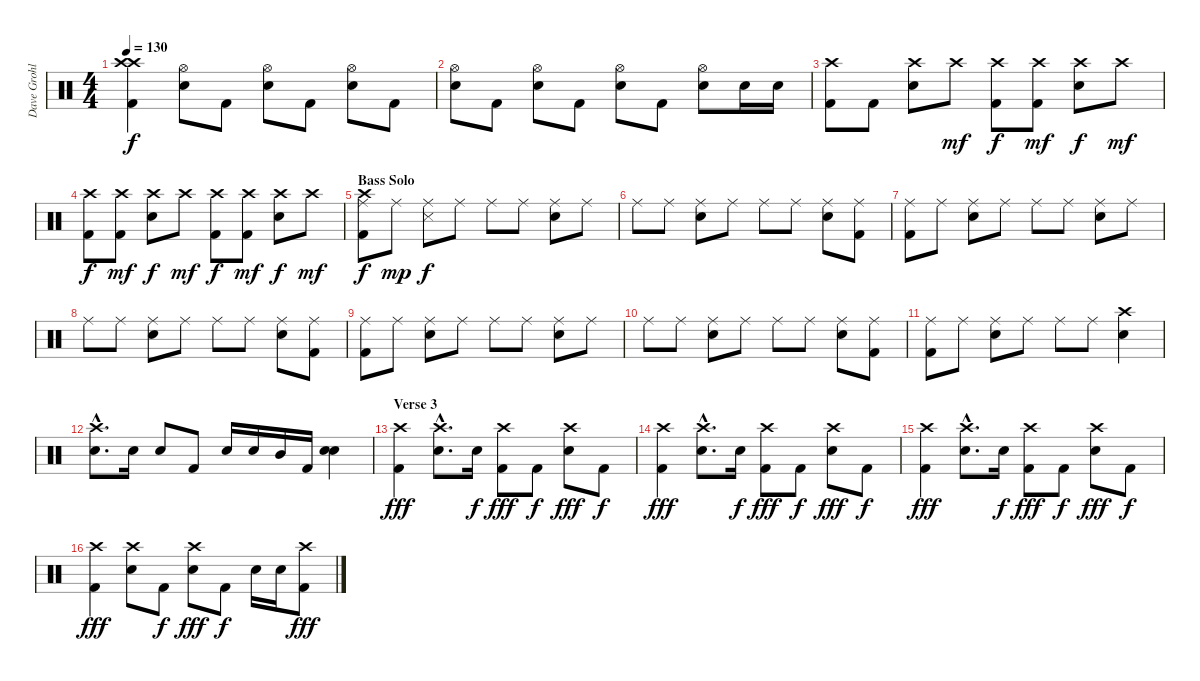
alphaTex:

\track ("Dave Grohl" "Dave Grohl") {instrument percussion}
\staff {score}
\articulation defaults
\ts (4 4)
\tempo 130
\clef neutral
\ks c
("Crash high (hit)" "Crash high (hit)" "Kick (hit) 2").4{dy f} ("Hi-Hat (open)" "Electric Snare (hit)").8 "Kick (hit) 2".8 ("Hi-Hat (open)" "Electric Snare (hit)").8 "Kick (hit) 2".8 ("Hi-Hat (open)" "Electric Snare (hit)").8 "Kick (hit) 2".8 |
("Hi-Hat (open)" "Electric Snare (hit)").8 "Kick (hit) 2".8 ("Hi-Hat (open)" "Electric Snare (hit)").8 "Kick (hit) 2".8 ("Hi-Hat (open)" "Electric Snare (hit)").8 "Kick (hit) 2".8 ("Hi-Hat (open)" "Electric Snare (hit)").8 "Electric Snare (hit)".16 "Electric Snare (hit)".16 |
("Crash high (hit)" "Kick (hit) 2").8 "Kick (hit) 2".8 ("Crash high (hit)" "Electric Snare (hit)").8 "Crash high (hit)".8{dy mf} ("Crash high (hit)" "Kick (hit) 2").8{dy f} ("Crash high (hit)" "Kick (hit) 2").8{dy mf} ("Crash high (hit)" "Electric Snare (hit)").8{dy f} "Crash high (hit)".8{dy mf} |
("Crash high (hit)" "Kick (hit) 2").8{dy f} ("Crash high (hit)" "Kick (hit) 2").8{dy mf} ("Crash high (hit)" "Electric Snare (hit)").8{dy f} "Crash high (hit)".8{dy mf} ("Crash high (hit)" "Kick (hit) 2").8{dy f} ("Crash high (hit)" "Kick (hit) 2").8{dy mf} ("Crash high (hit)" "Electric Snare (hit)").8{dy f} "Crash high (hit)".8{dy mf} |
\section ("" "Bass Solo")
("Crash high (hit)" "Ride (middle)" "Kick (hit) 2").8{dy f} "Ride (middle)".8{dy mp} ("Ride (middle)" "Snare (side stick) 3").8{dy f} "Ride (middle)".8 "Ride (middle)".8 "Ride (middle)".8 ("Ride (middle)" "Snare (hit) 2").8 "Ride (middle)".8 |
"Ride (middle)".8 "Ride (middle)".8 ("Ride (middle)" "Snare (hit) 2").8 "Ride (middle)".8 "Ride (middle)".8 "Ride (middle)".8 ("Ride (middle)" "Snare (hit) 2").8 ("Ride (middle)" "Kick (hit) 2").8 |
("Ride (middle)" "Kick (hit) 2").8 "Ride (middle)".8 ("Ride (middle)" "Snare (hit) 2").8 "Ride (middle)".8 "Ride (middle)".8 "Ride (middle)".8 ("Ride (middle)" "Snare (hit) 2").8 "Ride (middle)".8 |
"Ride (middle)".8 "Ride (middle)".8 ("Ride (middle)" "Snare (hit) 2").8 "Ride (middle)".8 "Ride (middle)".8 "Ride (middle)".8 ("Ride (middle)" "Snare (hit) 2").8 ("Ride (middle)" "Kick (hit) 2").8 |
("Ride (middle)" "Kick (hit) 2").8 "Ride (middle)".8 ("Ride (middle)" "Snare (hit) 2").8 "Ride (middle)".8 "Ride (middle)".8 "Ride (middle)".8 ("Ride (middle)" "Snare (hit) 2").8 "Ride (middle)".8 |
"Ride (middle)".8 "Ride (middle)".8 ("Ride (middle)" "Snare (hit) 2").8 "Ride (middle)".8 "Ride (middle)".8 "Ride (middle)".8 ("Ride (middle)" "Snare (hit) 2").8 ("Ride (middle)" "Kick (hit) 2").8 |
("Ride (middle)" "Kick (hit) 2").8 "Ride (middle)".8 ("Ride (middle)" "Snare (hit) 2").8 "Ride (middle)".8 "Ride (middle)".8 "Ride (middle)".8 ("Crash high (hit)" "Snare (hit) 2").4 |
("Crash high (hit)"{hac} "Electric Snare (hit)"{hac}).8{d} "Electric Snare (hit)".16 "Electric Snare (hit)".8 "Kick (hit) 2".8 "Electric Snare (hit)".16 "Electric Snare (hit)".16 "Mid Tom (hit)".16 "Kick (hit) 2".16 ("Electric Snare (hit)" "Electric Snare (hit)").4 |
\section ("" "Verse 3")
("Crash high (hit)" "Kick (hit) 2").4{dy fff} ("Crash high (hit)"{hac} "Electric Snare (hit)"{hac}).8{d} "Electric Snare (hit)".16{dy f} ("Crash high (hit)" "Kick (hit) 2").8{dy fff} "Kick (hit) 2".8{dy f} ("Crash high (hit)" "Electric Snare (hit)").8{dy fff} "Kick (hit) 2".8{dy f} |
("Crash high (hit)" "Kick (hit) 2").4{dy fff} ("Crash high (hit)"{hac} "Electric Snare (hit)"{hac}).8{d} "Electric Snare (hit)".16{dy f} ("Crash high (hit)" "Kick (hit) 2").8{dy fff} "Kick (hit) 2".8{dy f} ("Crash high (hit)" "Electric Snare (hit)").8{dy fff} "Kick (hit) 2".8{dy f} |
("Crash high (hit)" "Kick (hit) 2").4{dy fff} ("Crash high (hit)"{hac} "Electric Snare (hit)"{hac}).8{d} "Electric Snare (hit)".16{dy f} ("Crash high (hit)" "Kick (hit) 2").8{dy fff} "Kick (hit) 2".8{dy f} ("Crash high (hit)" "Electric Snare (hit)").8{dy fff} "Kick (hit) 2".8{dy f} |
("Crash high (hit)" "Kick (hit) 2").4{dy fff} ("Crash high (hit)" "Electric Snare (hit)").8 "Kick (hit) 2".8{dy f} ("Crash high (hit)" "Electric Snare (hit)").8{dy fff} "Kick (hit) 2".8{dy f} "Electric Snare (hit)".16 "Electric Snare (hit)".16 ("Crash high (hit)" "Kick (hit) 2").8{dy fff}
